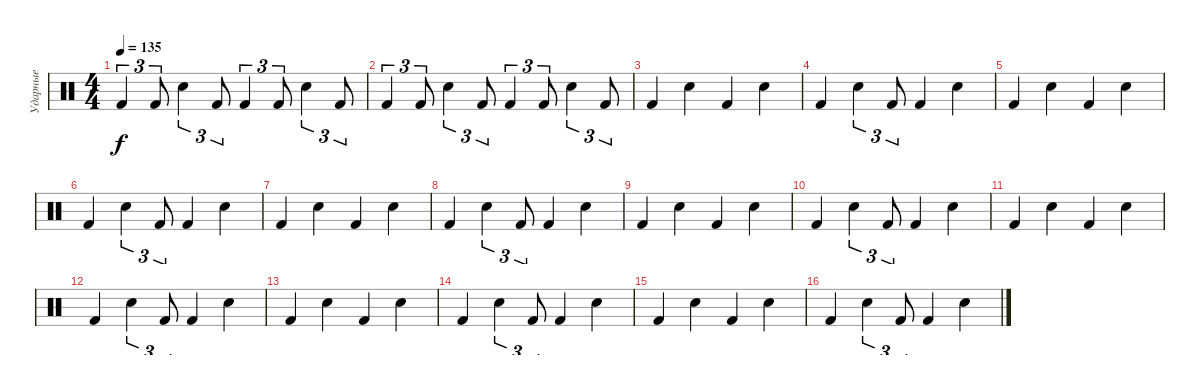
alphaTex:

\track ("Ударные" "Ударные") {instrument percussion}
\staff {score}
\articulation defaults
\ts (4 4)
\tempo 135
\clef neutral
\ks c "Kick (hit) 2".4{tu (3 2) dy f} "Kick (hit) 2".8{tu (3 2)} "Electric Snare (hit)".4{tu (3 2)} "Kick (hit) 2".8{tu (3 2)} "Kick (hit) 2".4{tu (3 2)} "Kick (hit) 2".8{tu (3 2)} "Electric Snare (hit)".4{tu (3 2)} "Kick (hit) 2".8{tu (3 2)}
|
"Kick (hit) 2".4{tu (3 2)} "Kick (hit) 2".8{tu (3 2)} "Electric Snare (hit)".4{tu (3 2)} "Kick (hit) 2".8{tu (3 2)} "Kick (hit) 2".4{tu (3 2)} "Kick (hit) 2".8{tu (3 2)} "Electric Snare (hit)".4{tu (3 2)} "Kick (hit) 2".8{tu (3 2)} |
"Kick (hit) 2".4 "Electric Snare (hit)".4 "Kick (hit) 2".4 "Electric Snare (hit)".4 |
"Kick (hit) 2".4 "Electric Snare (hit)".4{tu (3 2)} "Kick (hit) 2".8{tu (3 2)} "Kick (hit) 2".4 "Electric Snare (hit)".4 |
"Kick (hit) 2".4 "Electric Snare (hit)".4 "Kick (hit) 2".4 "Electric Snare (hit)".4 |
"Kick (hit) 2".4 "Electric Snare (hit)".4{tu (3 2)} "Kick (hit) 2".8{tu (3 2)} "Kick (hit) 2".4 "Electric Snare (hit)".4 |
"Kick (hit) 2".4 "Electric Snare (hit)".4 "Kick (hit) 2".4 "Electric Snare (hit)".4 |
"Kick (hit) 2".4 "Electric Snare (hit)".4{tu (3 2)} "Kick (hit) 2".8{tu (3 2)} "Kick (hit) 2".4 "Electric Snare (hit)".4 |
"Kick (hit) 2".4 "Electric Snare (hit)".4 "Kick (hit) 2".4 "Electric Snare (hit)".4 |
"Kick (hit) 2".4 "Electric Snare (hit)".4{tu (3 2)} "Kick (hit) 2".8{tu (3 2)} "Kick (hit) 2".4 "Electric Snare (hit)".4 |
"Kick (hit) 2".4 "Electric Snare (hit)".4 "Kick (hit) 2".4 "Electric Snare (hit)".4 |
"Kick (hit) 2".4 "Electric Snare (hit)".4{tu (3 2)} "Kick (hit) 2".8{tu (3 2)} "Kick (hit) 2".4 "Electric Snare (hit)".4 |
"Kick (hit) 2".4 "Electric Snare (hit)".4 "Kick (hit) 2".4 "Electric Snare (hit)".4 |
"Kick (hit) 2".4 "Electric Snare (hit)".4{tu (3 2)} "Kick (hit) 2".8{tu (3 2)} "Kick (hit) 2".4 "Electric Snare (hit)".4 |
"Kick (hit) 2".4 "Electric Snare (hit)".4 "Kick (hit) 2".4 "Electric Snare (hit)".4 |
"Kick (hit) 2".4 "Electric Snare (hit)".4{tu (3 2)} "Kick (hit) 2".8{tu (3 2)} "Kick (hit) 2".4 "Electric Snare (hit)".4
